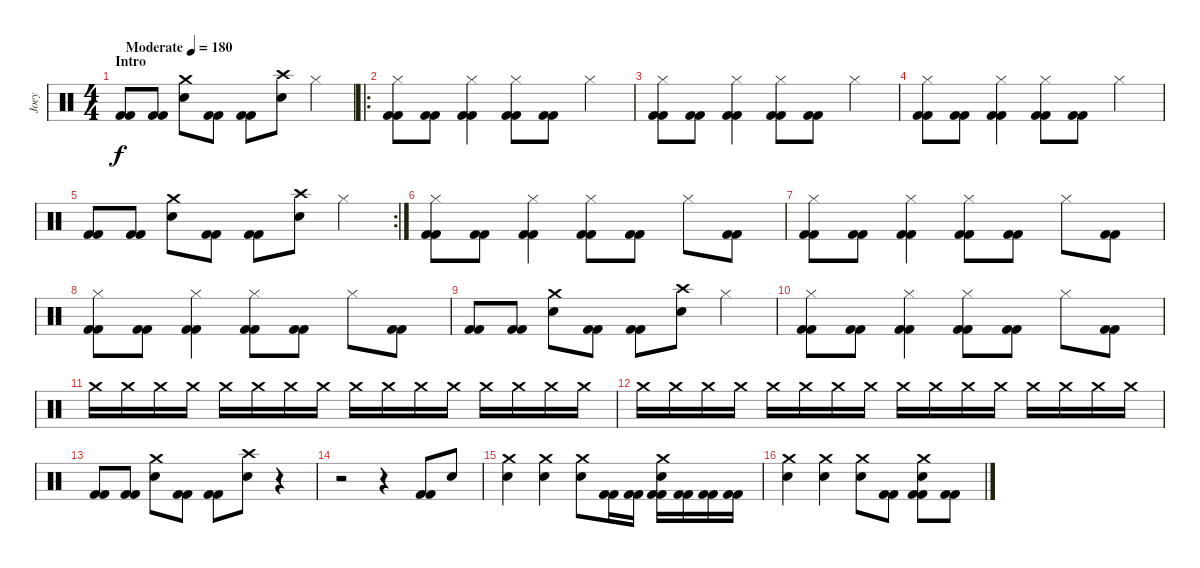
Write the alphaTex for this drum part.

\track ("Joey" "Joey") {instrument percussion}
\staff {score}
\articulation defaults
\ts (4 4)
\section ("" "Intro")
\tempo (180 "Moderate")
\clef neutral
\ks c
("Kick (hit) 2" "Kick (hit) 2").8{dy f} ("Kick (hit) 2" "Kick (hit) 2").8 ("Electric Snare (hit)" "Crash medium (hit)").8 ("Kick (hit) 2" "Kick (hit) 2").8 ("Kick (hit) 2" "Kick (hit) 2").8 ("Electric Snare (hit)" "Crash high (hit)").8 "Hi-Hat (closed)".4 |
\ro
("Hi-Hat (closed)" "Kick (hit) 2" "Kick (hit) 2").8 ("Kick (hit) 2" "Kick (hit) 2").8 ("Hi-Hat (closed)" "Kick (hit) 2" "Kick (hit) 2").4 ("Hi-Hat (closed)" "Kick (hit) 2" "Kick (hit) 2").8 ("Kick (hit) 2" "Kick (hit) 2").8 "Hi-Hat (closed)".4 |
("Hi-Hat (closed)" "Kick (hit) 2" "Kick (hit) 2").8 ("Kick (hit) 2" "Kick (hit) 2").8 ("Hi-Hat (closed)" "Kick (hit) 2" "Kick (hit) 2").4 ("Hi-Hat (closed)" "Kick (hit) 2" "Kick (hit) 2").8 ("Kick (hit) 2" "Kick (hit) 2").8 "Hi-Hat (closed)".4 |
("Hi-Hat (closed)" "Kick (hit) 2" "Kick (hit) 2").8 ("Kick (hit) 2" "Kick (hit) 2").8 ("Hi-Hat (closed)" "Kick (hit) 2" "Kick (hit) 2").4 ("Hi-Hat (closed)" "Kick (hit) 2" "Kick (hit) 2").8 ("Kick (hit) 2" "Kick (hit) 2").8 "Hi-Hat (closed)".4 |
\rc 2
("Kick (hit) 2" "Kick (hit) 2").8 ("Kick (hit) 2" "Kick (hit) 2").8 ("Electric Snare (hit)" "Crash medium (hit)").8 ("Kick (hit) 2" "Kick (hit) 2").8 ("Kick (hit) 2" "Kick (hit) 2").8 ("Electric Snare (hit)" "Crash high (hit)").8 "Hi-Hat (closed)".4 |
("Hi-Hat (closed)" "Kick (hit) 2" "Kick (hit) 2").8 ("Kick (hit) 2" "Kick (hit) 2").8 ("Hi-Hat (closed)" "Kick (hit) 2" "Kick (hit) 2").4 ("Hi-Hat (closed)" "Kick (hit) 2" "Kick (hit) 2").8 ("Kick (hit) 2" "Kick (hit) 2").8 "Hi-Hat (closed)".8 ("Kick (hit) 2" "Kick (hit) 2").8 |
("Hi-Hat (closed)" "Kick (hit) 2" "Kick (hit) 2").8 ("Kick (hit) 2" "Kick (hit) 2").8 ("Hi-Hat (closed)" "Kick (hit) 2" "Kick (hit) 2").4 ("Hi-Hat (closed)" "Kick (hit) 2" "Kick (hit) 2").8 ("Kick (hit) 2" "Kick (hit) 2").8 "Hi-Hat (closed)".8 ("Kick (hit) 2" "Kick (hit) 2").8 |
("Hi-Hat (closed)" "Kick (hit) 2" "Kick (hit) 2").8 ("Kick (hit) 2" "Kick (hit) 2").8 ("Hi-Hat (closed)" "Kick (hit) 2" "Kick (hit) 2").4 ("Hi-Hat (closed)" "Kick (hit) 2" "Kick (hit) 2").8 ("Kick (hit) 2" "Kick (hit) 2").8 "Hi-Hat (closed)".8 ("Kick (hit) 2" "Kick (hit) 2").8 |
("Kick (hit) 2" "Kick (hit) 2").8 ("Kick (hit) 2" "Kick (hit) 2").8 ("Electric Snare (hit)" "Crash medium (hit)").8 ("Kick (hit) 2" "Kick (hit) 2").8 ("Kick (hit) 2" "Kick (hit) 2").8 ("Electric Snare (hit)" "Crash high (hit)").8 "Hi-Hat (closed)".4 |
("Hi-Hat (closed)" "Kick (hit) 2" "Kick (hit) 2").8 ("Kick (hit) 2" "Kick (hit) 2").8 ("Hi-Hat (closed)" "Kick (hit) 2" "Kick (hit) 2").4 ("Hi-Hat (closed)" "Kick (hit) 2" "Kick (hit) 2").8 ("Kick (hit) 2" "Kick (hit) 2").8 "Hi-Hat (closed)".8 ("Kick (hit) 2" "Kick (hit) 2").8 |
"Crash medium (hit)".16{volume 5} "Crash medium (hit)".16{volume 16} "Crash medium (hit)".16 "Crash medium (hit)".16 "Crash medium (hit)".16 "Crash medium (hit)".16 "Crash medium (hit)".16 "Crash medium (hit)".16 "Crash medium (hit)".16 "Crash medium (hit)".16 "Crash medium (hit)".16 "Crash medium (hit)".16 "Crash medium (hit)".16 "Crash medium (hit)".16 "Crash medium (hit)".16 "Crash medium (hit)".16 |
"Crash medium (hit)".16 "Crash medium (hit)".16 "Crash medium (hit)".16 "Crash medium (hit)".16 "Crash medium (hit)".16 "Crash medium (hit)".16 "Crash medium (hit)".16 "Crash medium (hit)".16 "Crash medium (hit)".16 "Crash medium (hit)".16 "Crash medium (hit)".16 "Crash medium (hit)".16 "Crash medium (hit)".16 "Crash medium (hit)".16 "Crash medium (hit)".16 "Crash medium (hit)".16 |
("Kick (hit) 2" "Kick (hit) 2").8 ("Kick (hit) 2" "Kick (hit) 2").8 ("Electric Snare (hit)" "Crash medium (hit)").8 ("Kick (hit) 2" "Kick (hit) 2").8 ("Kick (hit) 2" "Kick (hit) 2").8 ("Electric Snare (hit)" "Crash high (hit)").8 r.4 |
r.2 r.4 ("Kick (hit) 2" "Kick (hit) 2").8 "Electric Snare (hit)".8 |
("Electric Snare (hit)" "Crash medium (hit)").4 ("Electric Snare (hit)" "Crash medium (hit)").4 ("Electric Snare (hit)" "Crash medium (hit)").8 ("Kick (hit) 2" "Kick (hit) 2").16 ("Kick (hit) 2" "Kick (hit) 2").16 ("Electric Snare (hit)" "Crash medium (hit)" "Kick (hit) 2" "Kick (hit) 2").16 ("Kick (hit) 2" "Kick (hit) 2").16 ("Kick (hit) 2" "Kick (hit) 2").16 ("Kick (hit) 2" "Kick (hit) 2").16 |
("Electric Snare (hit)" "Crash medium (hit)").4 ("Electric Snare (hit)" "Crash medium (hit)").4 ("Electric Snare (hit)" "Crash medium (hit)").8 ("Kick (hit) 2" "Kick (hit) 2").8 ("Electric Snare (hit)" "Crash medium (hit)" "Kick (hit) 2" "Kick (hit) 2").8 ("Kick (hit) 2" "Kick (hit) 2").8
